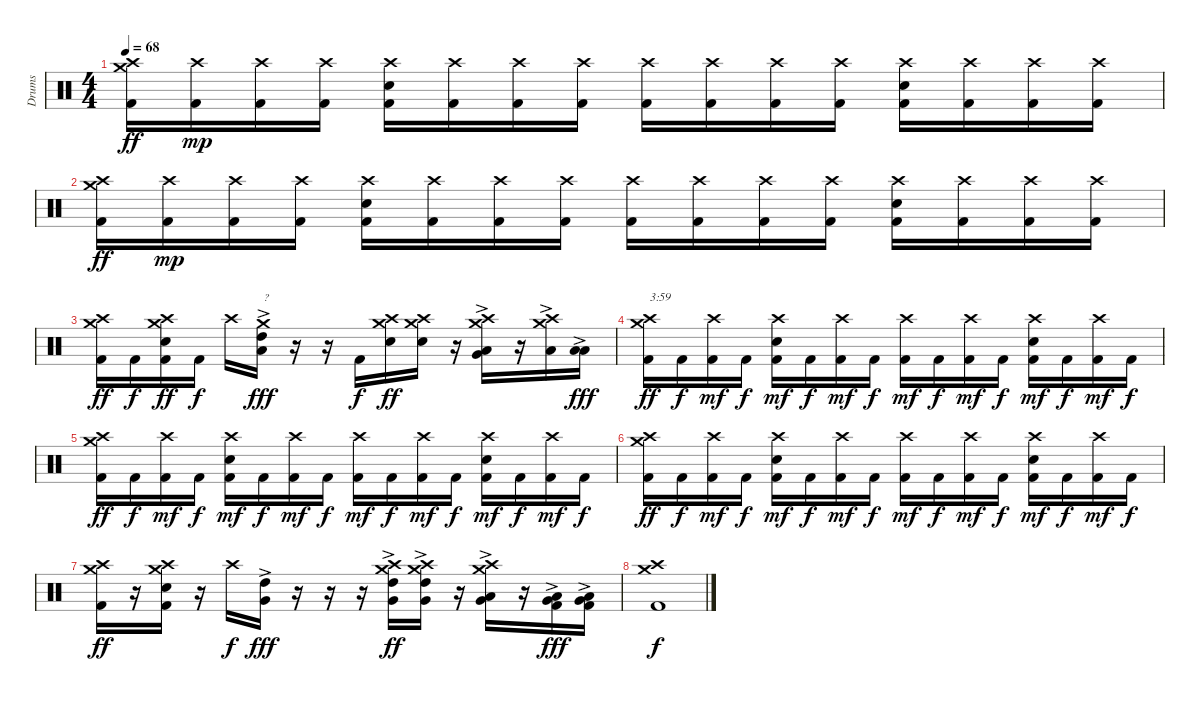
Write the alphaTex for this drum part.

\track ("Drums" "Drums") {instrument percussion}
\staff {score}
\articulation defaults
\ts (4 4)
\tempo 68
\clef neutral
\ks c
("Kick (hit) 2" "Crash high (hit)" "Crash medium (hit)").16{dy ff} ("Kick (hit) 2" "Crash high (hit)").16{dy mp} ("Kick (hit) 2" "Crash high (hit)").16 ("Kick (hit) 2" "Crash high (hit)").16 ("Kick (hit) 2" "Electric Snare (hit)" "Crash high (hit)").16 ("Kick (hit) 2" "Crash high (hit)").16 ("Kick (hit) 2" "Crash high (hit)").16 ("Kick (hit) 2" "Crash high (hit)").16 ("Kick (hit) 2" "Crash high (hit)").16 ("Kick (hit) 2" "Crash high (hit)").16 ("Kick (hit) 2" "Crash high (hit)").16 ("Kick (hit) 2" "Crash high (hit)").16 ("Kick (hit) 2" "Electric Snare (hit)" "Crash high (hit)").16 ("Kick (hit) 2" "Crash high (hit)").16 ("Kick (hit) 2" "Crash high (hit)").16 ("Kick (hit) 2" "Crash high (hit)").16 |
("Kick (hit) 2" "Crash high (hit)" "Crash medium (hit)").16{dy ff} ("Kick (hit) 2" "Crash high (hit)").16{dy mp} ("Kick (hit) 2" "Crash high (hit)").16 ("Kick (hit) 2" "Crash high (hit)").16 ("Kick (hit) 2" "Electric Snare (hit)" "Crash high (hit)").16 ("Kick (hit) 2" "Crash high (hit)").16 ("Kick (hit) 2" "Crash high (hit)").16 ("Kick (hit) 2" "Crash high (hit)").16 ("Kick (hit) 2" "Crash high (hit)").16 ("Kick (hit) 2" "Crash high (hit)").16 ("Kick (hit) 2" "Crash high (hit)").16 ("Kick (hit) 2" "Crash high (hit)").16 ("Kick (hit) 2" "Electric Snare (hit)" "Crash high (hit)").16 ("Kick (hit) 2" "Crash high (hit)").16 ("Kick (hit) 2" "Crash high (hit)").16 ("Kick (hit) 2" "Crash high (hit)").16 |
("Kick (hit) 2" "Crash high (hit)" "Crash medium (hit)").16{dy ff} "Kick (hit) 2".16{dy f} ("Kick (hit) 2" "Electric Snare (hit)" "Crash high (hit)" "Crash medium (hit)").16{dy ff} "Kick (hit) 2".16{dy f} "Crash high (hit)".16 ("Low Tom (hit)"{ac} "High Tom (hit)"{ac} "Crash medium (hit)").16{txt "?" dy fff} r.16 r.16 "Kick (hit) 2".16{dy f} ("Electric Snare (hit)" "Crash high (hit)" "Crash medium (hit)").16{dy ff} ("Electric Snare (hit)" "Crash high (hit)" "Crash medium (hit)").16 r.16 ("Very Low Tom (hit)"{ac} "Low Tom (hit)"{ac} "Crash high (hit)" "Crash medium (hit)").16 r.16 ("Low Tom (hit)"{ac} "Crash high (hit)" "Crash medium (hit)").16 ("Low Tom (hit)"{ac} "Low Tom (hit)"{ac}).16{dy fff} |
("Kick (hit) 2" "Crash high (hit)" "Crash medium (hit)").16{txt "3:59" dy ff} "Kick (hit) 2".16{dy f} ("Kick (hit) 2" "Crash high (hit)").16{dy mf} "Kick (hit) 2".16{dy f} ("Kick (hit) 2" "Electric Snare (hit)" "Crash high (hit)").16{dy mf} "Kick (hit) 2".16{dy f} ("Kick (hit) 2" "Crash high (hit)").16{dy mf} "Kick (hit) 2".16{dy f} ("Kick (hit) 2" "Crash high (hit)").16{dy mf} "Kick (hit) 2".16{dy f} ("Kick (hit) 2" "Crash high (hit)").16{dy mf} "Kick (hit) 2".16{dy f} ("Kick (hit) 2" "Electric Snare (hit)" "Crash high (hit)").16{dy mf} "Kick (hit) 2".16{dy f} ("Kick (hit) 2" "Crash high (hit)").16{dy mf} "Kick (hit) 2".16{dy f} |
("Kick (hit) 2" "Crash high (hit)" "Crash medium (hit)").16{dy ff} "Kick (hit) 2".16{dy f} ("Kick (hit) 2" "Crash high (hit)").16{dy mf} "Kick (hit) 2".16{dy f} ("Kick (hit) 2" "Electric Snare (hit)" "Crash high (hit)").16{dy mf} "Kick (hit) 2".16{dy f} ("Kick (hit) 2" "Crash high (hit)").16{dy mf} "Kick (hit) 2".16{dy f} ("Kick (hit) 2" "Crash high (hit)").16{dy mf} "Kick (hit) 2".16{dy f} ("Kick (hit) 2" "Crash high (hit)").16{dy mf} "Kick (hit) 2".16{dy f} ("Kick (hit) 2" "Electric Snare (hit)" "Crash high (hit)").16{dy mf} "Kick (hit) 2".16{dy f} ("Kick (hit) 2" "Crash high (hit)").16{dy mf} "Kick (hit) 2".16{dy f} |
("Kick (hit) 2" "Crash high (hit)" "Crash medium (hit)").16{dy ff} "Kick (hit) 2".16{dy f} ("Kick (hit) 2" "Crash high (hit)").16{dy mf} "Kick (hit) 2".16{dy f} ("Kick (hit) 2" "Electric Snare (hit)" "Crash high (hit)").16{dy mf} "Kick (hit) 2".16{dy f} ("Kick (hit) 2" "Crash high (hit)").16{dy mf} "Kick (hit) 2".16{dy f} ("Kick (hit) 2" "Crash high (hit)").16{dy mf} "Kick (hit) 2".16{dy f} ("Kick (hit) 2" "Crash high (hit)").16{dy mf} "Kick (hit) 2".16{dy f} ("Kick (hit) 2" "Electric Snare (hit)" "Crash high (hit)").16{dy mf} "Kick (hit) 2".16{dy f} ("Kick (hit) 2" "Crash high (hit)").16{dy mf} "Kick (hit) 2".16{dy f} |
("Kick (hit) 2" "Crash high (hit)" "Crash medium (hit)").16{dy ff} r.16 ("Kick (hit) 2" "Electric Snare (hit)" "Crash high (hit)" "Crash medium (hit)").16 r.16 "Crash high (hit)".16{dy f} ("Very Low Tom (hit)"{ac} "High Tom (hit)"{ac}).16{dy fff} r.16 r.16 r.16 ("Very Low Tom (hit)"{ac} "High Tom (hit)"{ac} "Crash high (hit)" "Crash medium (hit)").16{dy ff} ("Very Low Tom (hit)"{ac} "High Tom (hit)"{ac} "Crash high (hit)" "Crash medium (hit)").16 r.16 ("Very Low Tom (hit)"{ac} "Low Tom (hit)"{ac} "Crash high (hit)" "Crash medium (hit)").16 r.16 ("Kick (hit) 2"{ac} "Very Low Tom (hit)"{ac} "Low Tom (hit)"{ac}).16{dy fff} ("Kick (hit) 2"{ac} "Very Low Tom (hit)"{ac} "Low Tom (hit)"{ac}).16 |
("Kick (hit) 2" "Crash high (hit)" "Crash medium (hit)").1{dy f}
